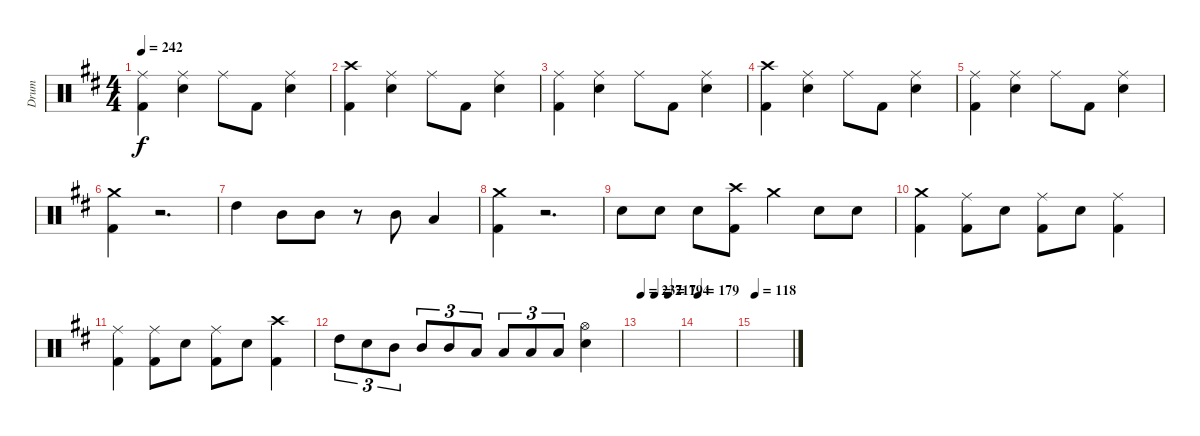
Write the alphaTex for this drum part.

\track ("Drum" "Drum") {instrument percussion}
\staff {score}
\articulation defaults
\ts (4 4)
\tempo 242
\clef neutral
\ks d
("Ride (middle)" "Kick (hit) 2").4{dy f} ("Ride (middle)" "Snare (hit) 2").4 "Ride (middle)".8 "Kick (hit) 2".8 ("Ride (middle)" "Snare (hit) 2").4 |
("Crash high (hit)" "Kick (hit) 2").4 ("Ride (middle)" "Snare (hit) 2").4 "Ride (middle)".8 "Kick (hit) 2".8 ("Ride (middle)" "Snare (hit) 2").4 |
("Ride (middle)" "Kick (hit) 2").4 ("Ride (middle)" "Snare (hit) 2").4 "Ride (middle)".8 "Kick (hit) 2".8 ("Ride (middle)" "Snare (hit) 2").4 |
("Crash high (hit)" "Kick (hit) 2").4 ("Ride (middle)" "Snare (hit) 2").4 "Ride (middle)".8 "Kick (hit) 2".8 ("Ride (middle)" "Snare (hit) 2").4 |
("Ride (middle)" "Kick (hit) 2").4 ("Ride (middle)" "Snare (hit) 2").4 "Ride (middle)".8 "Kick (hit) 2".8 ("Ride (middle)" "Snare (hit) 2").4 |
("Crash medium (hit)" "Kick (hit) 2").4 r.2{d} |
"High Tom (hit)".4 "Mid Tom (hit)".8 "Mid Tom (hit)".8 r.8 "Mid Tom (hit)".8 "Low Tom (hit)".4 |
("Crash medium (hit)" "Kick (hit) 2").4 r.2{d} |
"Snare (hit) 2".8 "Snare (hit) 2".8 "Snare (hit) 2".8 ("Crash high (hit)" "Kick (hit) 2").8 "Crash medium (hit)".4 "Snare (hit) 2".8 "Snare (hit) 2".8 |
("Crash medium (hit)" "Kick (hit) 2").4 ("Ride (middle)" "Kick (hit) 2").8 "Snare (hit) 2".8 ("Ride (middle)" "Kick (hit) 2").8 "Snare (hit) 2".8 ("Ride (middle)" "Kick (hit) 2").4 |
("Ride (middle)" "Kick (hit) 2").4 ("Ride (middle)" "Kick (hit) 2").8 "Snare (hit) 2".8 ("Ride (middle)" "Kick (hit) 2").8 "Snare (hit) 2".8 ("Crash high (hit)" "Kick (hit) 2").4 |
"High Tom (hit)".8{tu (3 2)} "Snare (hit) 2".8{tu (3 2)} "Mid Tom (hit)".8{tu (3 2)} "Mid Tom (hit)".8{tu (3 2)} "Mid Tom (hit)".8{tu (3 2)} "Low Tom (hit)".8{tu (3 2)} "Low Tom (hit)".8{tu (3 2)} "Low Tom (hit)".8{tu (3 2)} "Low Tom (hit)".8{tu (3 2)} ("Hi-Hat (open)" "Snare (hit) 2").4 |
\tempo 237
\tempo (217 0.375)
\tempo (194 0.75)
|
\tempo 179
|
\tempo 118
